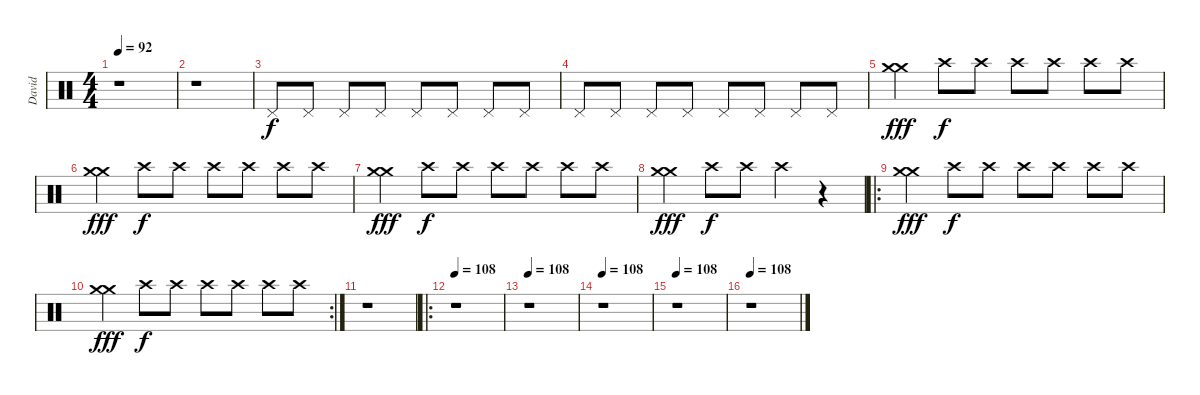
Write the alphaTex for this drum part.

\track ("David" "David") {instrument percussion}
\staff {score}
\articulation defaults
\ts (4 4)
\tempo 92
\clef neutral
\ks c
r.1{dy f} |
r.1 |
"Pedal Hi-Hat (hit)".8 "Pedal Hi-Hat (hit)".8 "Pedal Hi-Hat (hit)".8 "Pedal Hi-Hat (hit)".8 "Pedal Hi-Hat (hit)".8 "Pedal Hi-Hat (hit)".8 "Pedal Hi-Hat (hit)".8 "Pedal Hi-Hat (hit)".8 |
"Pedal Hi-Hat (hit)".8 "Pedal Hi-Hat (hit)".8 "Pedal Hi-Hat (hit)".8 "Pedal Hi-Hat (hit)".8 "Pedal Hi-Hat (hit)".8 "Pedal Hi-Hat (hit)".8 "Pedal Hi-Hat (hit)".8 "Pedal Hi-Hat (hit)".8 |
("Crash medium (hit)" "Crash medium (hit)").4{dy fff} "Crash high (hit)".8{dy f} "Crash high (hit)".8 "Crash high (hit)".8 "Crash high (hit)".8 "Crash high (hit)".8 "Crash high (hit)".8 |
("Crash medium (hit)" "Crash medium (hit)").4{dy fff} "Crash high (hit)".8{dy f} "Crash high (hit)".8 "Crash high (hit)".8 "Crash high (hit)".8 "Crash high (hit)".8 "Crash high (hit)".8 |
("Crash medium (hit)" "Crash medium (hit)").4{dy fff} "Crash high (hit)".8{dy f} "Crash high (hit)".8 "Crash high (hit)".8 "Crash high (hit)".8 "Crash high (hit)".8 "Crash high (hit)".8 |
("Crash medium (hit)" "Crash medium (hit)").4{dy fff} "Crash high (hit)".8{dy f} "Crash high (hit)".8 "Crash high (hit)".4 r.4 |
\ro
("Crash medium (hit)" "Crash medium (hit)").4{dy fff} "Crash high (hit)".8{dy f} "Crash high (hit)".8 "Crash high (hit)".8 "Crash high (hit)".8 "Crash high (hit)".8 "Crash high (hit)".8 |
\rc 2
("Crash medium (hit)" "Crash medium (hit)").4{dy fff} "Crash high (hit)".8{dy f} "Crash high (hit)".8 "Crash high (hit)".8 "Crash high (hit)".8 "Crash high (hit)".8 "Crash high (hit)".8 |
r.1 |
\ro
\tempo 108
r.1 |
\tempo 108
r.1 |
\tempo 108
r.1 |
\tempo 108
r.1 |
\tempo 108
r.1
